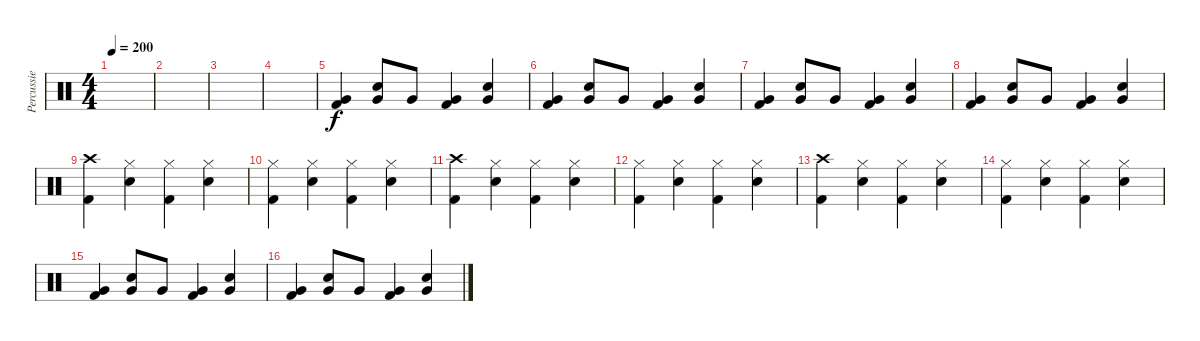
\track ("Percussie" "Percussie") {instrument percussion}
\staff {score}
\articulation defaults
\ts (4 4)
\tempo 200
\clef neutral
\ks c
|
|
|
|
("Very Low Tom (hit)" "Kick (hit) 2").4 ("Very Low Tom (hit)" "Snare (hit) 2").8 "Very Low Tom (hit)".8 ("Very Low Tom (hit)" "Kick (hit) 2").4 ("Very Low Tom (hit)" "Snare (hit) 2").4 |
("Very Low Tom (hit)" "Kick (hit) 2").4 ("Very Low Tom (hit)" "Snare (hit) 2").8 "Very Low Tom (hit)".8 ("Very Low Tom (hit)" "Kick (hit) 2").4 ("Very Low Tom (hit)" "Snare (hit) 2").4 |
("Very Low Tom (hit)" "Kick (hit) 2").4 ("Very Low Tom (hit)" "Snare (hit) 2").8 "Very Low Tom (hit)".8 ("Very Low Tom (hit)" "Kick (hit) 2").4 ("Very Low Tom (hit)" "Snare (hit) 2").4 |
("Very Low Tom (hit)" "Kick (hit) 2").4 ("Very Low Tom (hit)" "Snare (hit) 2").8 "Very Low Tom (hit)".8 ("Very Low Tom (hit)" "Kick (hit) 2").4 ("Very Low Tom (hit)" "Snare (hit) 2").4 |
("Crash high (hit)" "Kick (hit) 2").4 ("Hi-Hat (closed)" "Snare (hit) 2").4 ("Hi-Hat (closed)" "Kick (hit) 2").4 ("Hi-Hat (closed)" "Snare (hit) 2").4 |
("Hi-Hat (closed)" "Kick (hit) 2").4 ("Hi-Hat (closed)" "Snare (hit) 2").4 ("Hi-Hat (closed)" "Kick (hit) 2").4 ("Hi-Hat (closed)" "Snare (hit) 2").4 |
("Crash high (hit)" "Kick (hit) 2").4 ("Hi-Hat (closed)" "Snare (hit) 2").4 ("Hi-Hat (closed)" "Kick (hit) 2").4 ("Hi-Hat (closed)" "Snare (hit) 2").4 |
("Hi-Hat (closed)" "Kick (hit) 2").4 ("Hi-Hat (closed)" "Snare (hit) 2").4 ("Hi-Hat (closed)" "Kick (hit) 2").4 ("Hi-Hat (closed)" "Snare (hit) 2").4 |
("Crash high (hit)" "Kick (hit) 2").4 ("Hi-Hat (closed)" "Snare (hit) 2").4 ("Hi-Hat (closed)" "Kick (hit) 2").4 ("Hi-Hat (closed)" "Snare (hit) 2").4 |
("Hi-Hat (closed)" "Kick (hit) 2").4 ("Hi-Hat (closed)" "Snare (hit) 2").4 ("Hi-Hat (closed)" "Kick (hit) 2").4 ("Hi-Hat (closed)" "Snare (hit) 2").4 |
("Very Low Tom (hit)" "Kick (hit) 2").4 ("Very Low Tom (hit)" "Snare (hit) 2").8 "Very Low Tom (hit)".8 ("Very Low Tom (hit)" "Kick (hit) 2").4 ("Very Low Tom (hit)" "Snare (hit) 2").4 |
("Very Low Tom (hit)" "Kick (hit) 2").4 ("Very Low Tom (hit)" "Snare (hit) 2").8 "Very Low Tom (hit)".8 ("Very Low Tom (hit)" "Kick (hit) 2").4 ("Very Low Tom (hit)" "Snare (hit) 2").4
